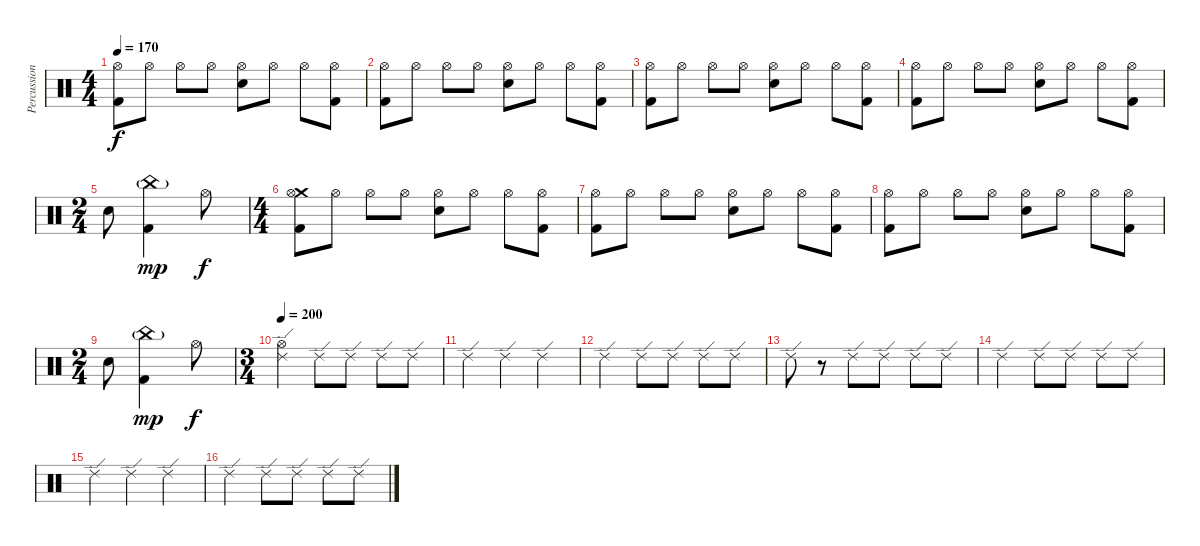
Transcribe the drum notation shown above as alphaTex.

\track ("Percussions" "Percussion") {instrument percussion}
\staff {score}
\articulation defaults
\ts (4 4)
\tempo 170
\clef neutral
\ks c
("Hi-Hat (open)" "Kick (hit) 2").8{dy f} "Hi-Hat (open)".8 "Hi-Hat (open)".8 "Hi-Hat (open)".8 ("Hi-Hat (open)" "Electric Snare (hit)").8 "Hi-Hat (open)".8 "Hi-Hat (open)".8 ("Hi-Hat (open)" "Kick (hit) 2").8 |
("Hi-Hat (open)" "Kick (hit) 2").8 "Hi-Hat (open)".8 "Hi-Hat (open)".8 "Hi-Hat (open)".8 ("Hi-Hat (open)" "Electric Snare (hit)").8 "Hi-Hat (open)".8 "Hi-Hat (open)".8 ("Hi-Hat (open)" "Kick (hit) 2").8 |
("Hi-Hat (open)" "Kick (hit) 2").8 "Hi-Hat (open)".8 "Hi-Hat (open)".8 "Hi-Hat (open)".8 ("Hi-Hat (open)" "Electric Snare (hit)").8 "Hi-Hat (open)".8 "Hi-Hat (open)".8 ("Hi-Hat (open)" "Kick (hit) 2").8 |
("Hi-Hat (open)" "Kick (hit) 2").8 "Hi-Hat (open)".8 "Hi-Hat (open)".8 "Hi-Hat (open)".8 ("Hi-Hat (open)" "Electric Snare (hit)").8 "Hi-Hat (open)".8 "Hi-Hat (open)".8 ("Hi-Hat (open)" "Kick (hit) 2").8 |
\ts (2 4)
"Electric Snare (hit)".8 ("China (hit)"{g} "Kick (hit) 2").4{dy mp} "Hi-Hat (open)".8{dy f} |
\ts (4 4)
("Crash medium (hit)" "Hi-Hat (open)" "Kick (hit) 2").8 "Hi-Hat (open)".8 "Hi-Hat (open)".8 "Hi-Hat (open)".8 ("Hi-Hat (open)" "Electric Snare (hit)").8 "Hi-Hat (open)".8 "Hi-Hat (open)".8 ("Hi-Hat (open)" "Kick (hit) 2").8 |
("Hi-Hat (open)" "Kick (hit) 2").8 "Hi-Hat (open)".8 "Hi-Hat (open)".8 "Hi-Hat (open)".8 ("Hi-Hat (open)" "Electric Snare (hit)").8 "Hi-Hat (open)".8 "Hi-Hat (open)".8 ("Hi-Hat (open)" "Kick (hit) 2").8 |
("Hi-Hat (open)" "Kick (hit) 2").8 "Hi-Hat (open)".8 "Hi-Hat (open)".8 "Hi-Hat (open)".8 ("Hi-Hat (open)" "Electric Snare (hit)").8 "Hi-Hat (open)".8 "Hi-Hat (open)".8 ("Hi-Hat (open)" "Kick (hit) 2").8 |
\ts (2 4)
"Electric Snare (hit)".8 ("China (hit)"{g} "Kick (hit) 2").4{dy mp} "Hi-Hat (open)".8{dy f} |
\ts (3 4)
\tempo 200
("Hi-Hat (open)" "Ride (edge) 2").4 "Ride (edge) 2".8 "Ride (edge) 2".8 "Ride (edge) 2".8 "Ride (edge) 2".8 |
"Ride (edge) 2".4 "Ride (edge) 2".4 "Ride (edge) 2".4 |
"Ride (edge) 2".4 "Ride (edge) 2".8 "Ride (edge) 2".8 "Ride (edge) 2".8 "Ride (edge) 2".8 |
"Ride (edge) 2".8 r.8 "Ride (edge) 2".8 "Ride (edge) 2".8 "Ride (edge) 2".8 "Ride (edge) 2".8 |
"Ride (edge) 2".4 "Ride (edge) 2".8 "Ride (edge) 2".8 "Ride (edge) 2".8 "Ride (edge) 2".8 |
"Ride (edge) 2".4 "Ride (edge) 2".4 "Ride (edge) 2".4 |
"Ride (edge) 2".4 "Ride (edge) 2".8 "Ride (edge) 2".8 "Ride (edge) 2".8 "Ride (edge) 2".8
